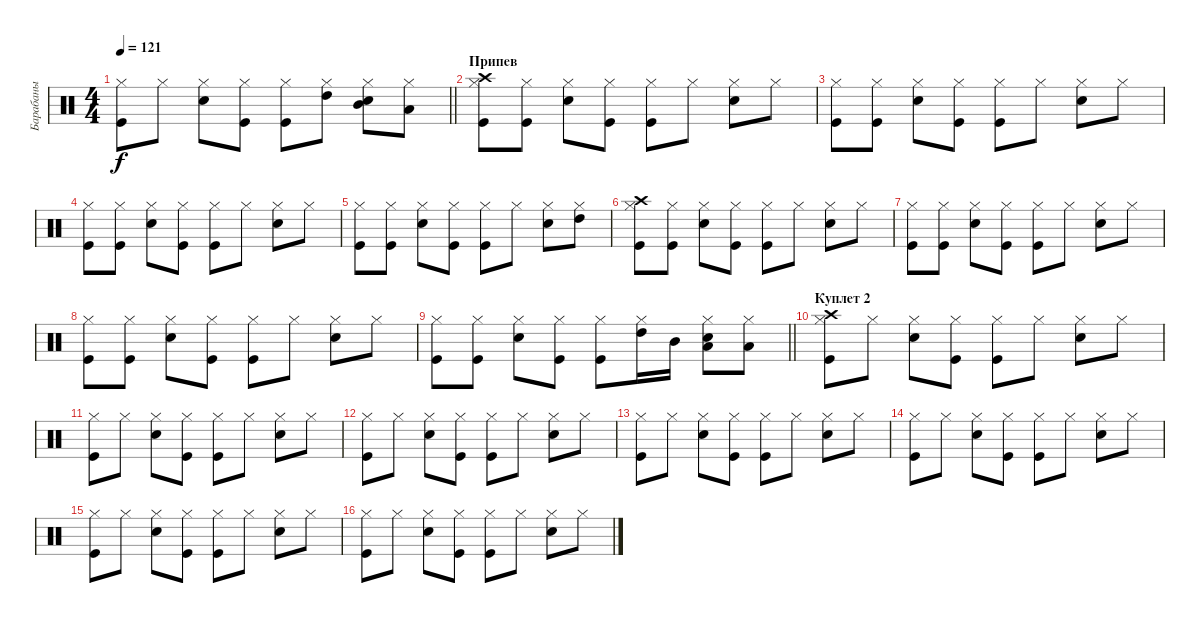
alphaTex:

\track ("Барабаны" "Барабаны") {instrument percussion}
\staff {score}
\articulation defaults
\ts (4 4)
\tempo 121
\clef neutral
\barLineRight lightlight
\ks c
("Kick (hit)" "Hi-Hat (closed)").8{dy f} "Hi-Hat (closed)".8 ("Snare (hit) 2" "Hi-Hat (closed)").8 ("Kick (hit)" "Hi-Hat (closed)").8 ("Kick (hit)" "Hi-Hat (closed)").8 ("Hi-Hat (closed)" "High Tom (hit)").8 ("Snare (hit) 2" "Hi-Hat (closed)" "Mid Tom (hit)").8 ("Hi-Hat (closed)" "Low Tom (hit)").8 |
\section ("" "Припев")
("Kick (hit)" "Hi-Hat (closed)" "Crash high (hit)").8 ("Kick (hit)" "Hi-Hat (closed)").8 ("Snare (hit) 2" "Hi-Hat (closed)").8 ("Kick (hit)" "Hi-Hat (closed)").8 ("Kick (hit)" "Hi-Hat (closed)").8 "Hi-Hat (closed)".8 ("Snare (hit) 2" "Hi-Hat (closed)").8 "Hi-Hat (closed)".8 |
("Kick (hit)" "Hi-Hat (closed)").8 ("Kick (hit)" "Hi-Hat (closed)").8 ("Snare (hit) 2" "Hi-Hat (closed)").8 ("Kick (hit)" "Hi-Hat (closed)").8 ("Kick (hit)" "Hi-Hat (closed)").8 "Hi-Hat (closed)".8 ("Snare (hit) 2" "Hi-Hat (closed)").8 "Hi-Hat (closed)".8 |
("Kick (hit)" "Hi-Hat (closed)").8 ("Kick (hit)" "Hi-Hat (closed)").8 ("Snare (hit) 2" "Hi-Hat (closed)").8 ("Kick (hit)" "Hi-Hat (closed)").8 ("Kick (hit)" "Hi-Hat (closed)").8 "Hi-Hat (closed)".8 ("Snare (hit) 2" "Hi-Hat (closed)").8 "Hi-Hat (closed)".8 |
("Kick (hit)" "Hi-Hat (closed)").8 ("Kick (hit)" "Hi-Hat (closed)").8 ("Snare (hit) 2" "Hi-Hat (closed)").8 ("Kick (hit)" "Hi-Hat (closed)").8 ("Kick (hit)" "Hi-Hat (closed)").8 "Hi-Hat (closed)".8 ("Snare (hit) 2" "Hi-Hat (closed)").8 ("Hi-Hat (closed)" "High Tom (hit)").8 |
("Kick (hit)" "Hi-Hat (closed)" "Crash high (hit)").8 ("Kick (hit)" "Hi-Hat (closed)").8 ("Snare (hit) 2" "Hi-Hat (closed)").8 ("Kick (hit)" "Hi-Hat (closed)").8 ("Kick (hit)" "Hi-Hat (closed)").8 "Hi-Hat (closed)".8 ("Snare (hit) 2" "Hi-Hat (closed)").8 "Hi-Hat (closed)".8 |
("Kick (hit)" "Hi-Hat (closed)").8 ("Kick (hit)" "Hi-Hat (closed)").8 ("Snare (hit) 2" "Hi-Hat (closed)").8 ("Kick (hit)" "Hi-Hat (closed)").8 ("Kick (hit)" "Hi-Hat (closed)").8 "Hi-Hat (closed)".8 ("Snare (hit) 2" "Hi-Hat (closed)").8 "Hi-Hat (closed)".8 |
("Kick (hit)" "Hi-Hat (closed)").8 ("Kick (hit)" "Hi-Hat (closed)").8 ("Snare (hit) 2" "Hi-Hat (closed)").8 ("Kick (hit)" "Hi-Hat (closed)").8 ("Kick (hit)" "Hi-Hat (closed)").8 "Hi-Hat (closed)".8 ("Snare (hit) 2" "Hi-Hat (closed)").8 "Hi-Hat (closed)".8 |
\barLineRight lightlight
("Kick (hit)" "Hi-Hat (closed)").8 ("Kick (hit)" "Hi-Hat (closed)").8 ("Snare (hit) 2" "Hi-Hat (closed)").8 ("Kick (hit)" "Hi-Hat (closed)").8 ("Kick (hit)" "Hi-Hat (closed)").8 ("Hi-Hat (closed)" "High Tom (hit)").16 "Mid Tom (hit)".16 ("Snare (hit) 2" "Hi-Hat (closed)" "Low Tom (hit)").8 ("Hi-Hat (closed)" "Low Tom (hit)").8 |
\section ("" "Куплет 2")
("Kick (hit)" "Hi-Hat (closed)" "Crash high (hit)").8 "Hi-Hat (closed)".8 ("Snare (hit) 2" "Hi-Hat (closed)").8 ("Kick (hit)" "Hi-Hat (closed)").8 ("Kick (hit)" "Hi-Hat (closed)").8 "Hi-Hat (closed)".8 ("Snare (hit) 2" "Hi-Hat (closed)").8 "Hi-Hat (closed)".8 |
("Kick (hit)" "Hi-Hat (closed)").8 "Hi-Hat (closed)".8 ("Snare (hit) 2" "Hi-Hat (closed)").8 ("Kick (hit)" "Hi-Hat (closed)").8 ("Kick (hit)" "Hi-Hat (closed)").8 "Hi-Hat (closed)".8 ("Snare (hit) 2" "Hi-Hat (closed)").8 "Hi-Hat (closed)".8 |
("Kick (hit)" "Hi-Hat (closed)").8 "Hi-Hat (closed)".8 ("Snare (hit) 2" "Hi-Hat (closed)").8 ("Kick (hit)" "Hi-Hat (closed)").8 ("Kick (hit)" "Hi-Hat (closed)").8 "Hi-Hat (closed)".8 ("Snare (hit) 2" "Hi-Hat (closed)").8 "Hi-Hat (closed)".8 |
("Kick (hit)" "Hi-Hat (closed)").8 "Hi-Hat (closed)".8 ("Snare (hit) 2" "Hi-Hat (closed)").8 ("Kick (hit)" "Hi-Hat (closed)").8 ("Kick (hit)" "Hi-Hat (closed)").8 "Hi-Hat (closed)".8 ("Snare (hit) 2" "Hi-Hat (closed)").8 "Hi-Hat (closed)".8 |
("Kick (hit)" "Hi-Hat (closed)").8 "Hi-Hat (closed)".8 ("Snare (hit) 2" "Hi-Hat (closed)").8 ("Kick (hit)" "Hi-Hat (closed)").8 ("Kick (hit)" "Hi-Hat (closed)").8 "Hi-Hat (closed)".8 ("Snare (hit) 2" "Hi-Hat (closed)").8 "Hi-Hat (closed)".8 |
("Kick (hit)" "Hi-Hat (closed)").8 "Hi-Hat (closed)".8 ("Snare (hit) 2" "Hi-Hat (closed)").8 ("Kick (hit)" "Hi-Hat (closed)").8 ("Kick (hit)" "Hi-Hat (closed)").8 "Hi-Hat (closed)".8 ("Snare (hit) 2" "Hi-Hat (closed)").8 "Hi-Hat (closed)".8 |
("Kick (hit)" "Hi-Hat (closed)").8 "Hi-Hat (closed)".8 ("Snare (hit) 2" "Hi-Hat (closed)").8 ("Kick (hit)" "Hi-Hat (closed)").8 ("Kick (hit)" "Hi-Hat (closed)").8 "Hi-Hat (closed)".8 ("Snare (hit) 2" "Hi-Hat (closed)").8 "Hi-Hat (closed)".8
